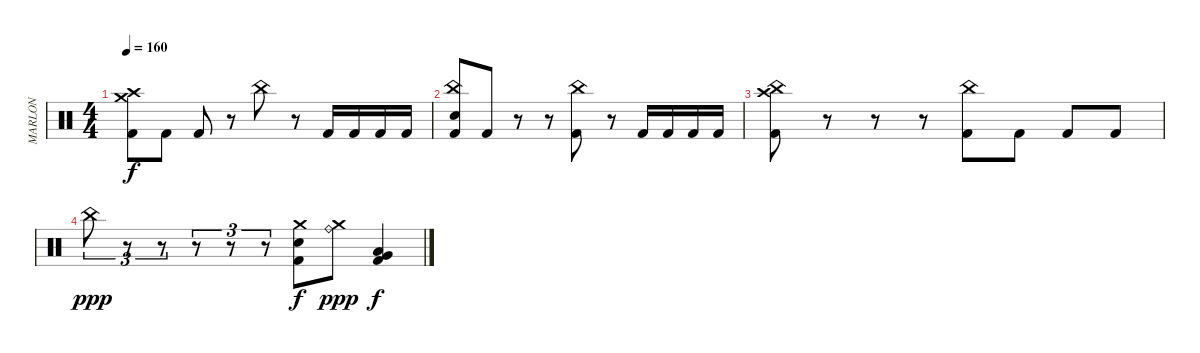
\track ("MARLON" "MARLON") {instrument percussion}
\staff {score}
\articulation defaults
\ts (4 4)
\tempo 160
\clef neutral
\ks c
("Crash medium (hit)" "Crash high (hit)" "Kick (hit) 2").8{dy f} "Kick (hit) 2".8 "Kick (hit) 2".8 r.8 "China (hit)".8 r.8 "Kick (hit) 2".16 "Kick (hit) 2".16 "Kick (hit) 2".16 "Kick (hit) 2".16 |
("China (hit)" "Electric Snare (hit)" "Kick (hit) 2").8 "Kick (hit) 2".8 r.8 r.8 ("China (hit)" "Kick (hit) 2").8 r.8 "Kick (hit) 2".16 "Kick (hit) 2".16 "Kick (hit) 2".16 "Kick (hit) 2".16 |
("China (hit)" "Crash high (hit)" "Kick (hit) 2").8 r.8 r.8 r.8 ("China (hit)" "Kick (hit) 2").8 "Kick (hit) 2".8 "Kick (hit) 2".8 "Kick (hit) 2".8 |
"China (hit)".8{tu (3 2) dy ppp} r.8{tu (3 2)} r.8{tu (3 2)} r.8{tu (3 2)} r.8{tu (3 2)} r.8{tu (3 2)} ("Crash medium (hit)" "Electric Snare (hit)" "Kick (hit) 2").8{dy f} ("Crash medium (hit)" "Ride (bell)").8{dy ppp} ("Low Tom (hit)" "Very Low Tom (hit)" "Kick (hit) 2").4{dy f}
